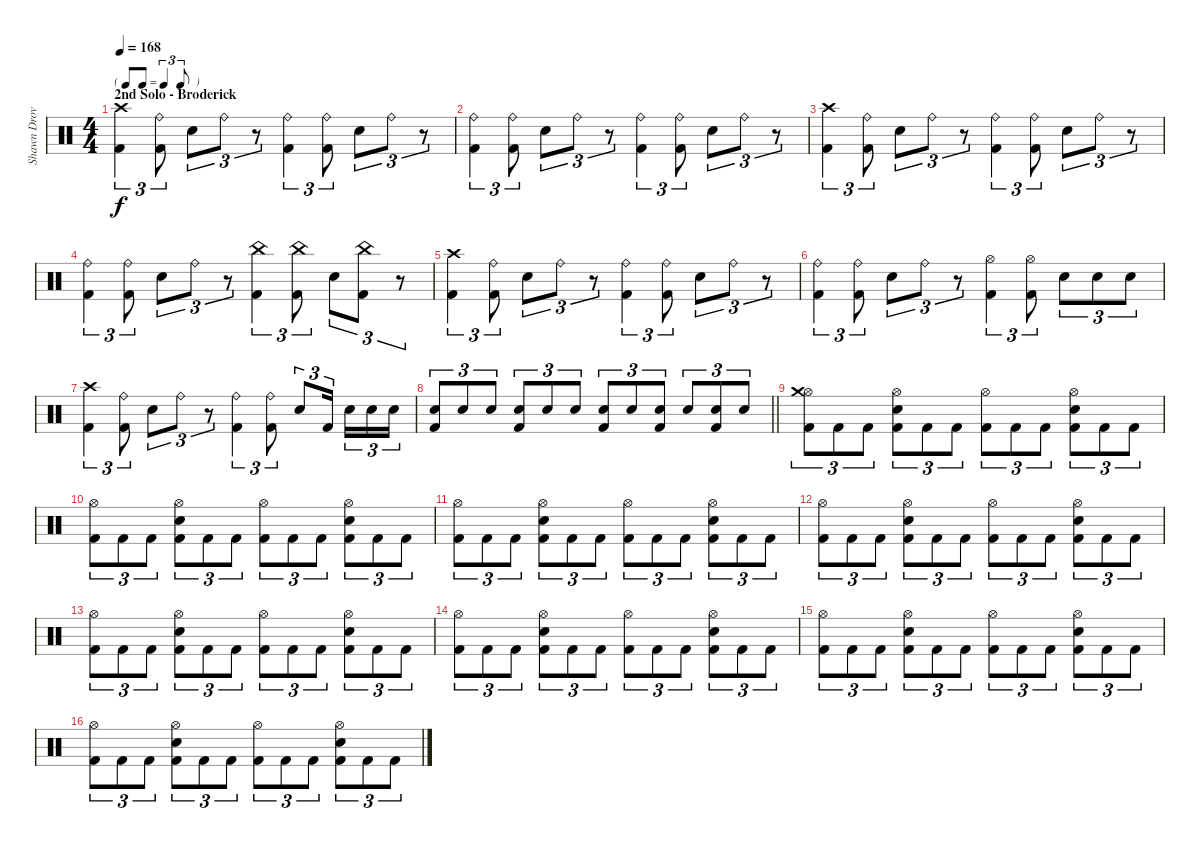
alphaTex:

\track ("Shawn Drover" "Shawn Drov") {instrument percussion}
\staff {score}
\articulation defaults
\ts (4 4)
\tf triplet8th
\section ("" "2nd Solo - Broderick")
\tempo 168
\clef neutral
\ks c
("Kick (hit) 2" "Crash high (hit)").4{tu (3 2) dy f} ("Kick (hit) 2" "Ride (bell)").8{tu (3 2)} "Snare (hit) 2".8{tu (3 2)} "Ride (bell)".8{tu (3 2)} r.8{tu (3 2)} ("Kick (hit) 2" "Ride (bell)").4{tu (3 2)} ("Kick (hit) 2" "Ride (bell)").8{tu (3 2)} "Snare (hit) 2".8{tu (3 2)} "Ride (bell)".8{tu (3 2)} r.8{tu (3 2)} |
("Kick (hit) 2" "Ride (bell)").4{tu (3 2)} ("Kick (hit) 2" "Ride (bell)").8{tu (3 2)} "Snare (hit) 2".8{tu (3 2)} "Ride (bell)".8{tu (3 2)} r.8{tu (3 2)} ("Kick (hit) 2" "Ride (bell)").4{tu (3 2)} ("Kick (hit) 2" "Ride (bell)").8{tu (3 2)} "Snare (hit) 2".8{tu (3 2)} "Ride (bell)".8{tu (3 2)} r.8{tu (3 2)} |
("Kick (hit) 2" "Crash high (hit)").4{tu (3 2)} ("Kick (hit) 2" "Ride (bell)").8{tu (3 2)} "Snare (hit) 2".8{tu (3 2)} "Ride (bell)".8{tu (3 2)} r.8{tu (3 2)} ("Kick (hit) 2" "Ride (bell)").4{tu (3 2)} ("Kick (hit) 2" "Ride (bell)").8{tu (3 2)} "Snare (hit) 2".8{tu (3 2)} "Ride (bell)".8{tu (3 2)} r.8{tu (3 2)} |
("Kick (hit) 2" "Ride (bell)").4{tu (3 2)} ("Kick (hit) 2" "Ride (bell)").8{tu (3 2)} "Snare (hit) 2".8{tu (3 2)} "Ride (bell)".8{tu (3 2)} r.8{tu (3 2)} ("Kick (hit) 2" "China (hit)").4{tu (3 2)} ("Kick (hit) 2" "China (hit)").8{tu (3 2)} "Snare (hit) 2".8{tu (3 2)} ("Kick (hit) 2" "China (hit)").8{tu (3 2)} r.8{tu (3 2)} |
("Kick (hit) 2" "Crash high (hit)").4{tu (3 2)} ("Kick (hit) 2" "Ride (bell)").8{tu (3 2)} "Snare (hit) 2".8{tu (3 2)} "Ride (bell)".8{tu (3 2)} r.8{tu (3 2)} ("Kick (hit) 2" "Ride (bell)").4{tu (3 2)} ("Kick (hit) 2" "Ride (bell)").8{tu (3 2)} "Snare (hit) 2".8{tu (3 2)} "Ride (bell)".8{tu (3 2)} r.8{tu (3 2)} |
("Kick (hit) 2" "Ride (bell)").4{tu (3 2)} ("Kick (hit) 2" "Ride (bell)").8{tu (3 2)} "Snare (hit) 2".8{tu (3 2)} "Ride (bell)".8{tu (3 2)} r.8{tu (3 2)} ("Kick (hit) 2" "Hi-Hat (open)").4{tu (3 2)} ("Kick (hit) 2" "Hi-Hat (open)").8{tu (3 2)} "Snare (hit) 2".8{tu (3 2)} "Snare (hit) 2".8{tu (3 2)} "Snare (hit) 2".8{tu (3 2)} |
("Kick (hit) 2" "Crash high (hit)").4{tu (3 2)} ("Kick (hit) 2" "Ride (bell)").8{tu (3 2)} "Snare (hit) 2".8{tu (3 2)} "Ride (bell)".8{tu (3 2)} r.8{tu (3 2)} ("Kick (hit) 2" "Ride (bell)").4{tu (3 2)} ("Kick (hit) 2" "Ride (bell)").8{tu (3 2)} "Snare (hit) 2".8{tu (3 2)} "Kick (hit) 2".16{tu (3 2) beam splitsecondary} "Snare (hit) 2".16{tu (3 2)} "Snare (hit) 2".16{tu (3 2)} "Snare (hit) 2".16{tu (3 2)} |
\barLineRight lightlight
("Kick (hit) 2" "Snare (hit) 2").8{tu (3 2)} "Snare (hit) 2".8{tu (3 2)} "Snare (hit) 2".8{tu (3 2)} ("Kick (hit) 2" "Snare (hit) 2").8{tu (3 2)} "Snare (hit) 2".8{tu (3 2)} "Snare (hit) 2".8{tu (3 2)} ("Kick (hit) 2" "Snare (hit) 2").8{tu (3 2)} "Snare (hit) 2".8{tu (3 2)} ("Kick (hit) 2" "Snare (hit) 2").8{tu (3 2)} "Snare (hit) 2".8{tu (3 2)} ("Kick (hit) 2" "Snare (hit) 2").8{tu (3 2)} "Snare (hit) 2".8{tu (3 2)} |
("Kick (hit) 2" "Hi-Hat (open)" "Crash medium (hit)").8{tu (3 2)} "Kick (hit) 2".8{tu (3 2)} "Kick (hit) 2".8{tu (3 2)} ("Kick (hit) 2" "Snare (hit) 2" "Hi-Hat (open)").8{tu (3 2)} "Kick (hit) 2".8{tu (3 2)} "Kick (hit) 2".8{tu (3 2)} ("Kick (hit) 2" "Hi-Hat (open)").8{tu (3 2)} "Kick (hit) 2".8{tu (3 2)} "Kick (hit) 2".8{tu (3 2)} ("Kick (hit) 2" "Snare (hit) 2" "Hi-Hat (open)").8{tu (3 2)} "Kick (hit) 2".8{tu (3 2)} "Kick (hit) 2".8{tu (3 2)} |
("Kick (hit) 2" "Hi-Hat (open)").8{tu (3 2)} "Kick (hit) 2".8{tu (3 2)} "Kick (hit) 2".8{tu (3 2)} ("Kick (hit) 2" "Snare (hit) 2" "Hi-Hat (open)").8{tu (3 2)} "Kick (hit) 2".8{tu (3 2)} "Kick (hit) 2".8{tu (3 2)} ("Kick (hit) 2" "Hi-Hat (open)").8{tu (3 2)} "Kick (hit) 2".8{tu (3 2)} "Kick (hit) 2".8{tu (3 2)} ("Kick (hit) 2" "Snare (hit) 2" "Hi-Hat (open)").8{tu (3 2)} "Kick (hit) 2".8{tu (3 2)} "Kick (hit) 2".8{tu (3 2)} |
("Kick (hit) 2" "Hi-Hat (open)").8{tu (3 2)} "Kick (hit) 2".8{tu (3 2)} "Kick (hit) 2".8{tu (3 2)} ("Kick (hit) 2" "Snare (hit) 2" "Hi-Hat (open)").8{tu (3 2)} "Kick (hit) 2".8{tu (3 2)} "Kick (hit) 2".8{tu (3 2)} ("Kick (hit) 2" "Hi-Hat (open)").8{tu (3 2)} "Kick (hit) 2".8{tu (3 2)} "Kick (hit) 2".8{tu (3 2)} ("Kick (hit) 2" "Snare (hit) 2" "Hi-Hat (open)").8{tu (3 2)} "Kick (hit) 2".8{tu (3 2)} "Kick (hit) 2".8{tu (3 2)} |
("Kick (hit) 2" "Hi-Hat (open)").8{tu (3 2)} "Kick (hit) 2".8{tu (3 2)} "Kick (hit) 2".8{tu (3 2)} ("Kick (hit) 2" "Snare (hit) 2" "Hi-Hat (open)").8{tu (3 2)} "Kick (hit) 2".8{tu (3 2)} "Kick (hit) 2".8{tu (3 2)} ("Kick (hit) 2" "Hi-Hat (open)").8{tu (3 2)} "Kick (hit) 2".8{tu (3 2)} "Kick (hit) 2".8{tu (3 2)} ("Kick (hit) 2" "Snare (hit) 2" "Hi-Hat (open)").8{tu (3 2)} "Kick (hit) 2".8{tu (3 2)} "Kick (hit) 2".8{tu (3 2)} |
("Kick (hit) 2" "Hi-Hat (open)").8{tu (3 2)} "Kick (hit) 2".8{tu (3 2)} "Kick (hit) 2".8{tu (3 2)} ("Kick (hit) 2" "Snare (hit) 2" "Hi-Hat (open)").8{tu (3 2)} "Kick (hit) 2".8{tu (3 2)} "Kick (hit) 2".8{tu (3 2)} ("Kick (hit) 2" "Hi-Hat (open)").8{tu (3 2)} "Kick (hit) 2".8{tu (3 2)} "Kick (hit) 2".8{tu (3 2)} ("Kick (hit) 2" "Snare (hit) 2" "Hi-Hat (open)").8{tu (3 2)} "Kick (hit) 2".8{tu (3 2)} "Kick (hit) 2".8{tu (3 2)} |
("Kick (hit) 2" "Hi-Hat (open)").8{tu (3 2)} "Kick (hit) 2".8{tu (3 2)} "Kick (hit) 2".8{tu (3 2)} ("Kick (hit) 2" "Snare (hit) 2" "Hi-Hat (open)").8{tu (3 2)} "Kick (hit) 2".8{tu (3 2)} "Kick (hit) 2".8{tu (3 2)} ("Kick (hit) 2" "Hi-Hat (open)").8{tu (3 2)} "Kick (hit) 2".8{tu (3 2)} "Kick (hit) 2".8{tu (3 2)} ("Kick (hit) 2" "Snare (hit) 2" "Hi-Hat (open)").8{tu (3 2)} "Kick (hit) 2".8{tu (3 2)} "Kick (hit) 2".8{tu (3 2)} |
("Kick (hit) 2" "Hi-Hat (open)").8{tu (3 2)} "Kick (hit) 2".8{tu (3 2)} "Kick (hit) 2".8{tu (3 2)} ("Kick (hit) 2" "Snare (hit) 2" "Hi-Hat (open)").8{tu (3 2)} "Kick (hit) 2".8{tu (3 2)} "Kick (hit) 2".8{tu (3 2)} ("Kick (hit) 2" "Hi-Hat (open)").8{tu (3 2)} "Kick (hit) 2".8{tu (3 2)} "Kick (hit) 2".8{tu (3 2)} ("Kick (hit) 2" "Snare (hit) 2" "Hi-Hat (open)").8{tu (3 2)} "Kick (hit) 2".8{tu (3 2)} "Kick (hit) 2".8{tu (3 2)} |
("Kick (hit) 2" "Hi-Hat (open)").8{tu (3 2)} "Kick (hit) 2".8{tu (3 2)} "Kick (hit) 2".8{tu (3 2)} ("Kick (hit) 2" "Snare (hit) 2" "Hi-Hat (open)").8{tu (3 2)} "Kick (hit) 2".8{tu (3 2)} "Kick (hit) 2".8{tu (3 2)} ("Kick (hit) 2" "Hi-Hat (open)").8{tu (3 2)} "Kick (hit) 2".8{tu (3 2)} "Kick (hit) 2".8{tu (3 2)} ("Kick (hit) 2" "Snare (hit) 2" "Hi-Hat (open)").8{tu (3 2)} "Kick (hit) 2".8{tu (3 2)} "Kick (hit) 2".8{tu (3 2)}
